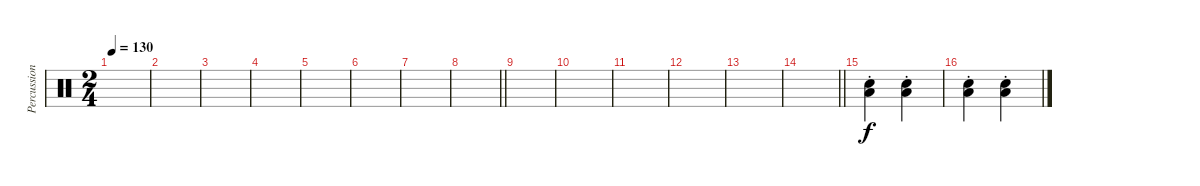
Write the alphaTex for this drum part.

\track ("Percussion" "Percussion") {instrument percussion}
\staff {score}
\articulation defaults
\ts (2 4)
\tempo 130
\clef neutral
\ks c
|
|
|
|
|
|
|
\barLineRight lightlight
|
|
|
|
|
|
\barLineRight lightlight
|
("Snare (hit) 2"{st} "Low Floor Tom (hit)"{st}).4 ("Snare (hit) 2"{st} "Low Floor Tom (hit)"{st}).4 |
("Snare (hit) 2"{st} "Low Floor Tom (hit)"{st}).4 ("Snare (hit) 2"{st} "Low Floor Tom (hit)"{st}).4
